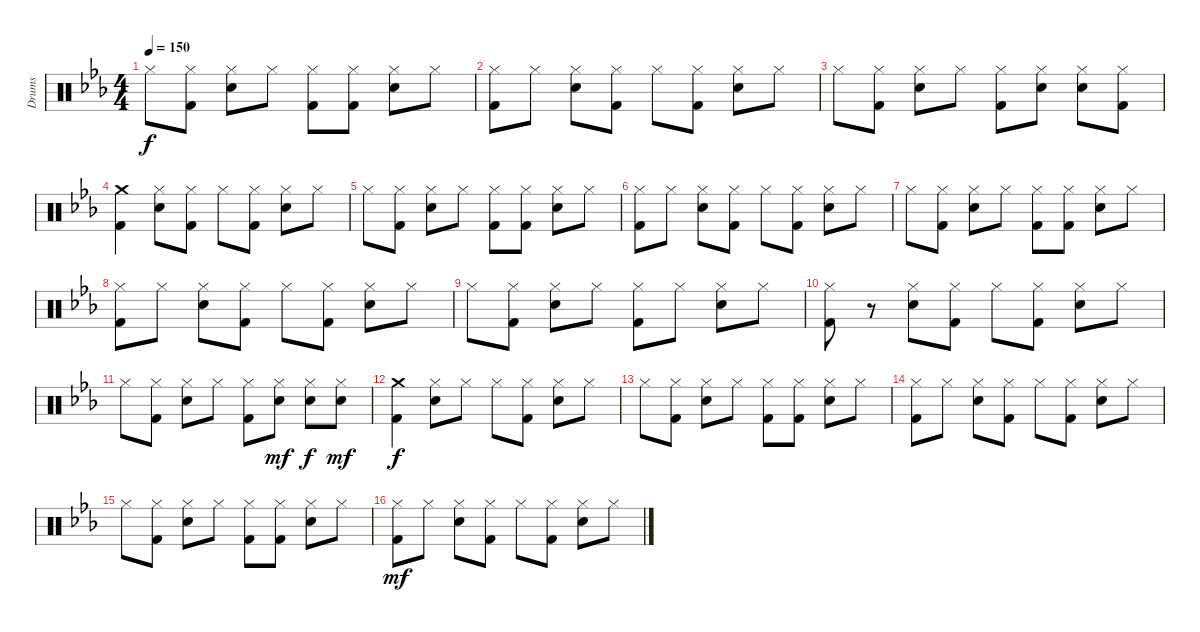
\track ("Drums" "Drums") {instrument percussion}
\staff {score}
\articulation defaults
\ts (4 4)
\tempo 150
\clef neutral
\ks eb "Hi-Hat (closed)".8{dy f}
("Hi-Hat (closed)" "Kick (hit) 2").8 ("Hi-Hat (closed)" "Electric Snare (hit)").8 "Hi-Hat (closed)".8 ("Hi-Hat (closed)" "Kick (hit) 2").8 ("Hi-Hat (closed)" "Kick (hit) 2").8 ("Hi-Hat (closed)" "Electric Snare (hit)").8 "Hi-Hat (closed)".8 |
("Hi-Hat (closed)" "Kick (hit) 2").8 "Hi-Hat (closed)".8 ("Hi-Hat (closed)" "Electric Snare (hit)").8 ("Hi-Hat (closed)" "Kick (hit) 2").8 "Hi-Hat (closed)".8 ("Hi-Hat (closed)" "Kick (hit) 2").8 ("Hi-Hat (closed)" "Electric Snare (hit)").8 "Hi-Hat (closed)".8 |
"Hi-Hat (closed)".8 ("Hi-Hat (closed)" "Kick (hit) 2").8 ("Hi-Hat (closed)" "Electric Snare (hit)").8 "Hi-Hat (closed)".8 ("Hi-Hat (closed)" "Kick (hit) 2").8 ("Hi-Hat (closed)" "Electric Snare (hit)").8 ("Hi-Hat (closed)" "Electric Snare (hit)").8 ("Hi-Hat (closed)" "Kick (hit) 2").8 |
("Crash medium (hit)" "Kick (hit) 2").4 ("Hi-Hat (closed)" "Electric Snare (hit)").8 ("Hi-Hat (closed)" "Kick (hit) 2").8 "Hi-Hat (closed)".8 ("Hi-Hat (closed)" "Kick (hit) 2").8 ("Hi-Hat (closed)" "Electric Snare (hit)").8 "Hi-Hat (closed)".8 |
"Hi-Hat (closed)".8 ("Hi-Hat (closed)" "Kick (hit) 2").8 ("Hi-Hat (closed)" "Electric Snare (hit)").8 "Hi-Hat (closed)".8 ("Hi-Hat (closed)" "Kick (hit) 2").8 ("Hi-Hat (closed)" "Kick (hit) 2").8 ("Hi-Hat (closed)" "Electric Snare (hit)").8 "Hi-Hat (closed)".8 |
("Hi-Hat (closed)" "Kick (hit) 2").8 "Hi-Hat (closed)".8 ("Hi-Hat (closed)" "Electric Snare (hit)").8 ("Hi-Hat (closed)" "Kick (hit) 2").8 "Hi-Hat (closed)".8 ("Hi-Hat (closed)" "Kick (hit) 2").8 ("Hi-Hat (closed)" "Electric Snare (hit)").8 "Hi-Hat (closed)".8 |
"Hi-Hat (closed)".8 ("Hi-Hat (closed)" "Kick (hit) 2").8 ("Hi-Hat (closed)" "Electric Snare (hit)").8 "Hi-Hat (closed)".8 ("Hi-Hat (closed)" "Kick (hit) 2").8 ("Hi-Hat (closed)" "Kick (hit) 2").8 ("Hi-Hat (closed)" "Electric Snare (hit)").8 "Hi-Hat (closed)".8 |
("Hi-Hat (closed)" "Kick (hit) 2").8 "Hi-Hat (closed)".8 ("Hi-Hat (closed)" "Electric Snare (hit)").8 ("Hi-Hat (closed)" "Kick (hit) 2").8 "Hi-Hat (closed)".8 ("Hi-Hat (closed)" "Kick (hit) 2").8 ("Hi-Hat (closed)" "Electric Snare (hit)").8 "Hi-Hat (closed)".8 |
"Hi-Hat (closed)".8 ("Hi-Hat (closed)" "Kick (hit) 2").8 ("Hi-Hat (closed)" "Electric Snare (hit)").8 "Hi-Hat (closed)".8 ("Hi-Hat (closed)" "Kick (hit) 2").8 "Hi-Hat (closed)".8 ("Hi-Hat (closed)" "Electric Snare (hit)").8 "Hi-Hat (closed)".8 |
("Hi-Hat (closed)" "Kick (hit) 2").8 r.8 ("Hi-Hat (closed)" "Electric Snare (hit)").8 ("Hi-Hat (closed)" "Kick (hit) 2").8 "Hi-Hat (closed)".8 ("Hi-Hat (closed)" "Kick (hit) 2").8 ("Hi-Hat (closed)" "Electric Snare (hit)").8 "Hi-Hat (closed)".8 |
"Hi-Hat (closed)".8 ("Hi-Hat (closed)" "Kick (hit) 2").8 ("Hi-Hat (closed)" "Electric Snare (hit)").8 "Hi-Hat (closed)".8 ("Hi-Hat (closed)" "Kick (hit) 2").8 ("Hi-Hat (closed)" "Electric Snare (hit)").8{dy mf} ("Hi-Hat (closed)" "Electric Snare (hit)").8{dy f} ("Hi-Hat (closed)" "Electric Snare (hit)").8{dy mf} |
("Crash medium (hit)" "Kick (hit) 2").4{dy f} ("Hi-Hat (closed)" "Electric Snare (hit)").8 "Hi-Hat (closed)".8 "Hi-Hat (closed)".8 ("Hi-Hat (closed)" "Kick (hit) 2").8 ("Hi-Hat (closed)" "Electric Snare (hit)").8 "Hi-Hat (closed)".8 |
"Hi-Hat (closed)".8 ("Hi-Hat (closed)" "Kick (hit) 2").8 ("Hi-Hat (closed)" "Electric Snare (hit)").8 "Hi-Hat (closed)".8 ("Hi-Hat (closed)" "Kick (hit) 2").8 ("Hi-Hat (closed)" "Kick (hit) 2").8 ("Hi-Hat (closed)" "Electric Snare (hit)").8 "Hi-Hat (closed)".8 |
("Hi-Hat (closed)" "Kick (hit) 2").8 "Hi-Hat (closed)".8 ("Hi-Hat (closed)" "Electric Snare (hit)").8 ("Hi-Hat (closed)" "Kick (hit) 2").8 "Hi-Hat (closed)".8 ("Hi-Hat (closed)" "Kick (hit) 2").8 ("Hi-Hat (closed)" "Electric Snare (hit)").8 "Hi-Hat (closed)".8 |
"Hi-Hat (closed)".8 ("Hi-Hat (closed)" "Kick (hit) 2").8 ("Hi-Hat (closed)" "Electric Snare (hit)").8 "Hi-Hat (closed)".8 ("Hi-Hat (closed)" "Kick (hit) 2").8 ("Hi-Hat (closed)" "Kick (hit) 2").8 ("Hi-Hat (closed)" "Electric Snare (hit)").8 "Hi-Hat (closed)".8 |
("Hi-Hat (closed)" "Kick (hit) 2").8{dy mf} "Hi-Hat (closed)".8 ("Hi-Hat (closed)" "Electric Snare (hit)").8 ("Hi-Hat (closed)" "Kick (hit) 2").8 "Hi-Hat (closed)".8 ("Hi-Hat (closed)" "Kick (hit) 2").8 ("Hi-Hat (closed)" "Electric Snare (hit)").8 "Hi-Hat (closed)".8
